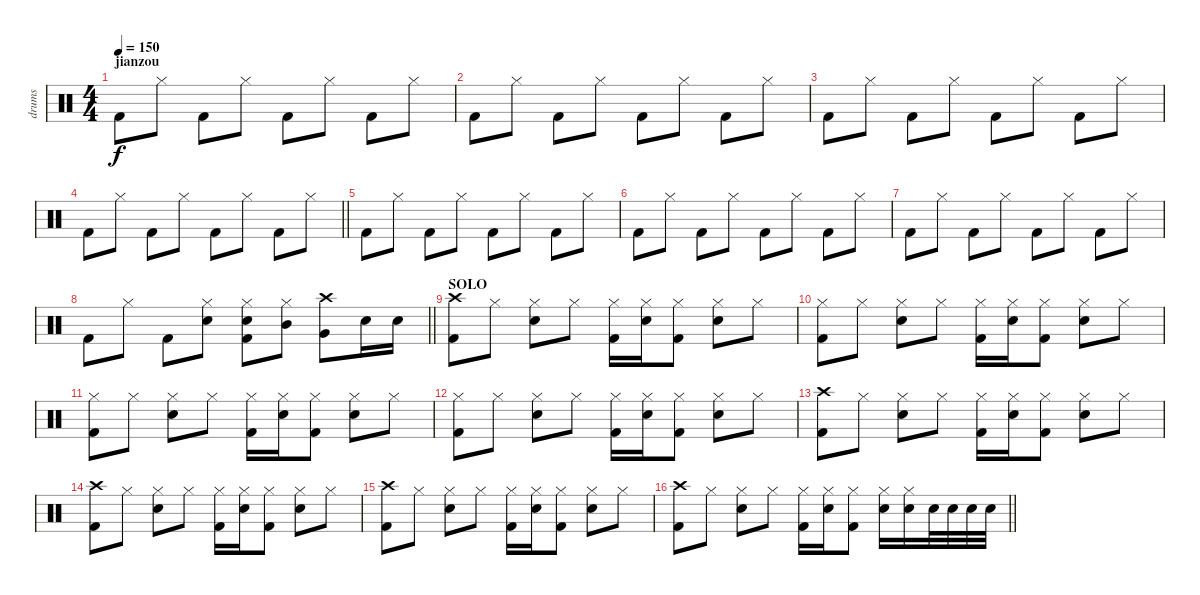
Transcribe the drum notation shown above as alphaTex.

\track ("drums" "drums") {instrument percussion}
\staff {score}
\articulation defaults
\ts (4 4)
\section ("" "jianzou")
\tempo 150
\clef neutral
\ks c "Kick (hit) 2".8{dy f} "Hi-Hat (closed)".8 "Kick (hit) 2".8 "Hi-Hat (closed)".8 "Kick (hit) 2".8 "Hi-Hat (closed)".8 "Kick (hit) 2".8 "Hi-Hat (closed)".8
|
"Kick (hit) 2".8 "Hi-Hat (closed)".8 "Kick (hit) 2".8 "Hi-Hat (closed)".8 "Kick (hit) 2".8 "Hi-Hat (closed)".8 "Kick (hit) 2".8 "Hi-Hat (closed)".8 |
"Kick (hit) 2".8 "Hi-Hat (closed)".8 "Kick (hit) 2".8 "Hi-Hat (closed)".8 "Kick (hit) 2".8 "Hi-Hat (closed)".8 "Kick (hit) 2".8 "Hi-Hat (closed)".8 |
\barLineRight lightlight "Kick (hit) 2".8 "Hi-Hat (closed)".8 "Kick (hit) 2".8 "Hi-Hat (closed)".8 "Kick (hit) 2".8 "Hi-Hat (closed)".8 "Kick (hit) 2".8 "Hi-Hat (closed)".8
|
"Kick (hit) 2".8 "Hi-Hat (closed)".8 "Kick (hit) 2".8 "Hi-Hat (closed)".8 "Kick (hit) 2".8 "Hi-Hat (closed)".8 "Kick (hit) 2".8 "Hi-Hat (closed)".8 |
"Kick (hit) 2".8 "Hi-Hat (closed)".8 "Kick (hit) 2".8 "Hi-Hat (closed)".8 "Kick (hit) 2".8 "Hi-Hat (closed)".8 "Kick (hit) 2".8 "Hi-Hat (closed)".8 |
"Kick (hit) 2".8 "Hi-Hat (closed)".8 "Kick (hit) 2".8 "Hi-Hat (closed)".8 "Kick (hit) 2".8 "Hi-Hat (closed)".8 "Kick (hit) 2".8 "Hi-Hat (closed)".8 |
\barLineRight lightlight "Kick (hit) 2".8 "Hi-Hat (closed)".8 "Kick (hit) 2".8
("Hi-Hat (closed)" "Electric Snare (hit)").8 ("Hi-Hat (closed)" "Electric Snare (hit)" "Kick (hit) 2").8 ("Hi-Hat (closed)" "Mid Tom (hit)").8 ("Crash high (hit)" "Very Low Tom (hit)").8 "Electric Snare (hit)".16 "Electric Snare (hit)".16 |
\section ("" "SOLO")
("Crash high (hit)" "Kick (hit) 2").8 "Hi-Hat (closed)".8 ("Hi-Hat (closed)" "Electric Snare (hit)").8 "Hi-Hat (closed)".8 ("Hi-Hat (closed)" "Kick (hit) 2").16 ("Hi-Hat (closed)" "Electric Snare (hit)").16 ("Hi-Hat (closed)" "Kick (hit) 2").8 ("Hi-Hat (closed)" "Electric Snare (hit)").8 "Hi-Hat (closed)".8 |
("Hi-Hat (closed)" "Kick (hit) 2").8 "Hi-Hat (closed)".8 ("Hi-Hat (closed)" "Electric Snare (hit)").8 "Hi-Hat (closed)".8 ("Hi-Hat (closed)" "Kick (hit) 2").16 ("Hi-Hat (closed)" "Electric Snare (hit)").16 ("Hi-Hat (closed)" "Kick (hit) 2").8 ("Hi-Hat (closed)" "Electric Snare (hit)").8 "Hi-Hat (closed)".8 |
("Hi-Hat (closed)" "Kick (hit) 2").8 "Hi-Hat (closed)".8 ("Hi-Hat (closed)" "Electric Snare (hit)").8 "Hi-Hat (closed)".8 ("Hi-Hat (closed)" "Kick (hit) 2").16 ("Hi-Hat (closed)" "Electric Snare (hit)").16 ("Hi-Hat (closed)" "Kick (hit) 2").8 ("Hi-Hat (closed)" "Electric Snare (hit)").8 "Hi-Hat (closed)".8 |
("Hi-Hat (closed)" "Kick (hit) 2").8 "Hi-Hat (closed)".8 ("Hi-Hat (closed)" "Electric Snare (hit)").8 "Hi-Hat (closed)".8 ("Hi-Hat (closed)" "Kick (hit) 2").16 ("Hi-Hat (closed)" "Electric Snare (hit)").16 ("Hi-Hat (closed)" "Kick (hit) 2").8 ("Hi-Hat (closed)" "Electric Snare (hit)").8 "Hi-Hat (closed)".8 |
("Crash high (hit)" "Kick (hit) 2").8 "Hi-Hat (closed)".8 ("Hi-Hat (closed)" "Electric Snare (hit)").8 "Hi-Hat (closed)".8 ("Hi-Hat (closed)" "Kick (hit) 2").16 ("Hi-Hat (closed)" "Electric Snare (hit)").16 ("Hi-Hat (closed)" "Kick (hit) 2").8 ("Hi-Hat (closed)" "Electric Snare (hit)").8 "Hi-Hat (closed)".8 |
("Crash high (hit)" "Kick (hit) 2").8 "Hi-Hat (closed)".8 ("Hi-Hat (closed)" "Electric Snare (hit)").8 "Hi-Hat (closed)".8 ("Hi-Hat (closed)" "Kick (hit) 2").16 ("Hi-Hat (closed)" "Electric Snare (hit)").16 ("Hi-Hat (closed)" "Kick (hit) 2").8 ("Hi-Hat (closed)" "Electric Snare (hit)").8 "Hi-Hat (closed)".8 |
("Crash high (hit)" "Kick (hit) 2").8 "Hi-Hat (closed)".8 ("Hi-Hat (closed)" "Electric Snare (hit)").8 "Hi-Hat (closed)".8 ("Hi-Hat (closed)" "Kick (hit) 2").16 ("Hi-Hat (closed)" "Electric Snare (hit)").16 ("Hi-Hat (closed)" "Kick (hit) 2").8 ("Hi-Hat (closed)" "Electric Snare (hit)").8 "Hi-Hat (closed)".8 |
\barLineRight lightlight
("Crash high (hit)" "Kick (hit) 2").8 "Hi-Hat (closed)".8 ("Hi-Hat (closed)" "Electric Snare (hit)").8 "Hi-Hat (closed)".8 ("Hi-Hat (closed)" "Kick (hit) 2").16 ("Hi-Hat (closed)" "Electric Snare (hit)").16 ("Hi-Hat (closed)" "Kick (hit) 2").8 ("Hi-Hat (closed)" "Electric Snare (hit)").16 ("Hi-Hat (closed)" "Electric Snare (hit)").16 "Electric Snare (hit)".32 "Electric Snare (hit)".32 "Electric Snare (hit)".32 "Electric Snare (hit)".32
